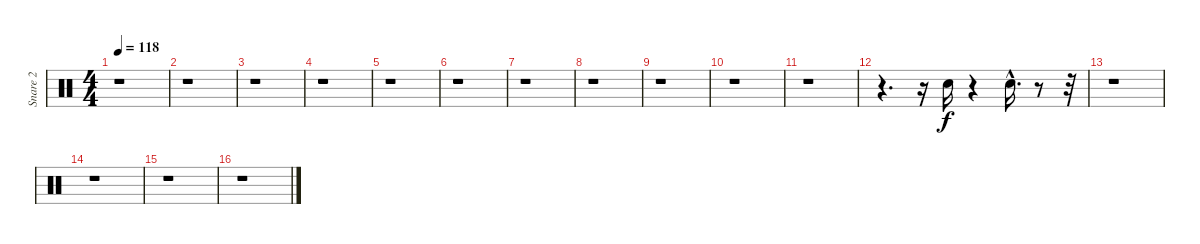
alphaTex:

\track ("Snare 2             " "Snare 2   ") {instrument percussion}
\staff {score}
\articulation defaults
\ts (4 4)
\tempo 118
\clef neutral
\ks c
r.1{dy f} |
r.1 |
r.1 |
r.1 |
r.1 |
r.1 |
r.1 |
r.1 |
r.1 |
r.1 |
r.1 |
r.4{d} r.16 "Electric Snare (hit)".16 r.4 "Electric Snare (hit)"{hac}.16{d} r.8 r.32 |
r.1 |
r.1 |
r.1 |
r.1
